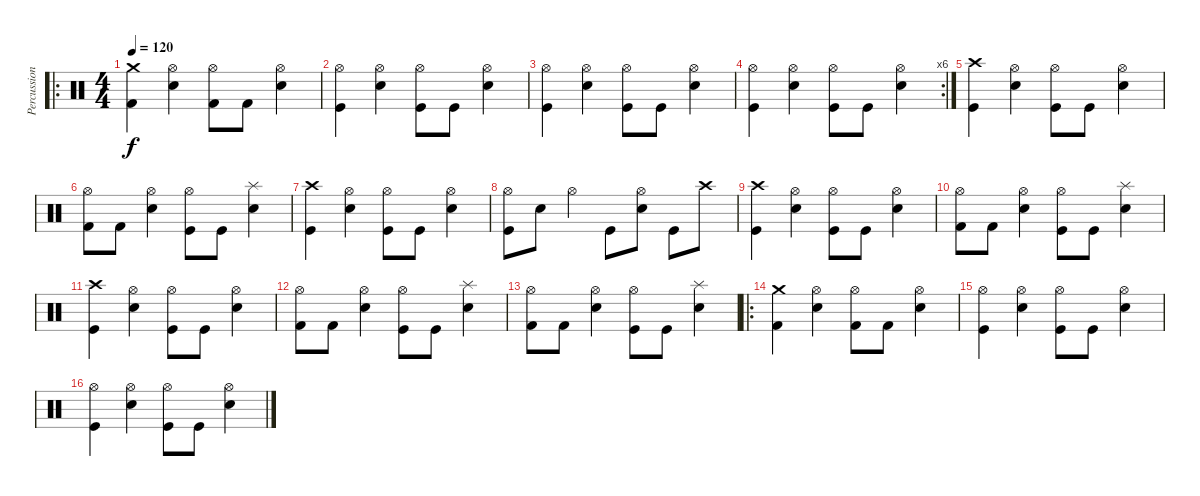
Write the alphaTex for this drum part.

\track ("Percussion" "Percussion") {instrument percussion}
\staff {score}
\articulation defaults
\ro
\ts (4 4)
\tempo 120
\clef neutral
\ks c
("Kick (hit) 2" "Crash medium (hit)").4{dy f} ("Snare (hit) 2" "Hi-Hat (open)").4 ("Hi-Hat (open)" "Kick (hit) 2").8 "Kick (hit) 2".8 ("Snare (hit) 2" "Hi-Hat (open)").4 |
("Hi-Hat (open)" "Kick (hit)").4 ("Hi-Hat (open)" "Snare (hit) 2").4 ("Hi-Hat (open)" "Kick (hit)").8 "Kick (hit)".8 ("Hi-Hat (open)" "Snare (hit) 2").4 |
("Hi-Hat (open)" "Kick (hit)").4 ("Hi-Hat (open)" "Snare (hit) 2").4 ("Hi-Hat (open)" "Kick (hit)").8 "Kick (hit)".8 ("Hi-Hat (open)" "Snare (hit) 2").4 |
\rc 6
("Hi-Hat (open)" "Kick (hit)").4 ("Hi-Hat (open)" "Snare (hit) 2").4 ("Hi-Hat (open)" "Kick (hit)").8 "Kick (hit)".8 ("Hi-Hat (open)" "Snare (hit) 2").4 |
("Crash high (hit)" "Kick (hit)").4 ("Hi-Hat (open)" "Snare (hit) 2").4 ("Hi-Hat (open)" "Kick (hit)").8 "Kick (hit)".8 ("Hi-Hat (open)" "Snare (hit) 2").4 |
("Hi-Hat (open)" "Kick (hit) 2").8 "Kick (hit) 2".8 ("Hi-Hat (open)" "Snare (hit) 2").4 ("Hi-Hat (open)" "Kick (hit)").8 "Kick (hit)".8 ("Splash (hit)" "Snare (hit) 2").4 |
("Crash high (hit)" "Kick (hit)").4 ("Hi-Hat (open)" "Snare (hit) 2").4 ("Hi-Hat (open)" "Kick (hit)").8 "Kick (hit)".8 ("Hi-Hat (open)" "Snare (hit) 2").4 |
("Hi-Hat (open)" "Kick (hit)").8 "Snare (hit) 2".8 "Hi-Hat (open)".4 "Kick (hit)".8 ("Hi-Hat (open)" "Snare (hit) 2").8 "Kick (hit)".8 "Crash high (hit)".8 |
("Crash high (hit)" "Kick (hit)").4 ("Hi-Hat (open)" "Snare (hit) 2").4 ("Hi-Hat (open)" "Kick (hit)").8 "Kick (hit)".8 ("Hi-Hat (open)" "Snare (hit) 2").4 |
("Hi-Hat (open)" "Kick (hit) 2").8 "Kick (hit) 2".8 ("Hi-Hat (open)" "Snare (hit) 2").4 ("Hi-Hat (open)" "Kick (hit)").8 "Kick (hit)".8 ("Splash (hit)" "Snare (hit) 2").4 |
("Crash high (hit)" "Kick (hit)").4 ("Hi-Hat (open)" "Snare (hit) 2").4 ("Hi-Hat (open)" "Kick (hit)").8 "Kick (hit)".8 ("Hi-Hat (open)" "Snare (hit) 2").4 |
("Hi-Hat (open)" "Kick (hit) 2").8 "Kick (hit) 2".8 ("Hi-Hat (open)" "Snare (hit) 2").4 ("Hi-Hat (open)" "Kick (hit)").8 "Kick (hit)".8 ("Splash (hit)" "Snare (hit) 2").4 |
("Hi-Hat (open)" "Kick (hit) 2").8 "Kick (hit) 2".8 ("Hi-Hat (open)" "Snare (hit) 2").4 ("Hi-Hat (open)" "Kick (hit)").8 "Kick (hit)".8 ("Splash (hit)" "Snare (hit) 2").4 |
\ro
("Kick (hit) 2" "Crash medium (hit)").4 ("Snare (hit) 2" "Hi-Hat (open)").4 ("Hi-Hat (open)" "Kick (hit) 2").8 "Kick (hit) 2".8 ("Snare (hit) 2" "Hi-Hat (open)").4 |
("Hi-Hat (open)" "Kick (hit)").4 ("Hi-Hat (open)" "Snare (hit) 2").4 ("Hi-Hat (open)" "Kick (hit)").8 "Kick (hit)".8 ("Hi-Hat (open)" "Snare (hit) 2").4 |
("Hi-Hat (open)" "Kick (hit)").4 ("Hi-Hat (open)" "Snare (hit) 2").4 ("Hi-Hat (open)" "Kick (hit)").8 "Kick (hit)".8 ("Hi-Hat (open)" "Snare (hit) 2").4
